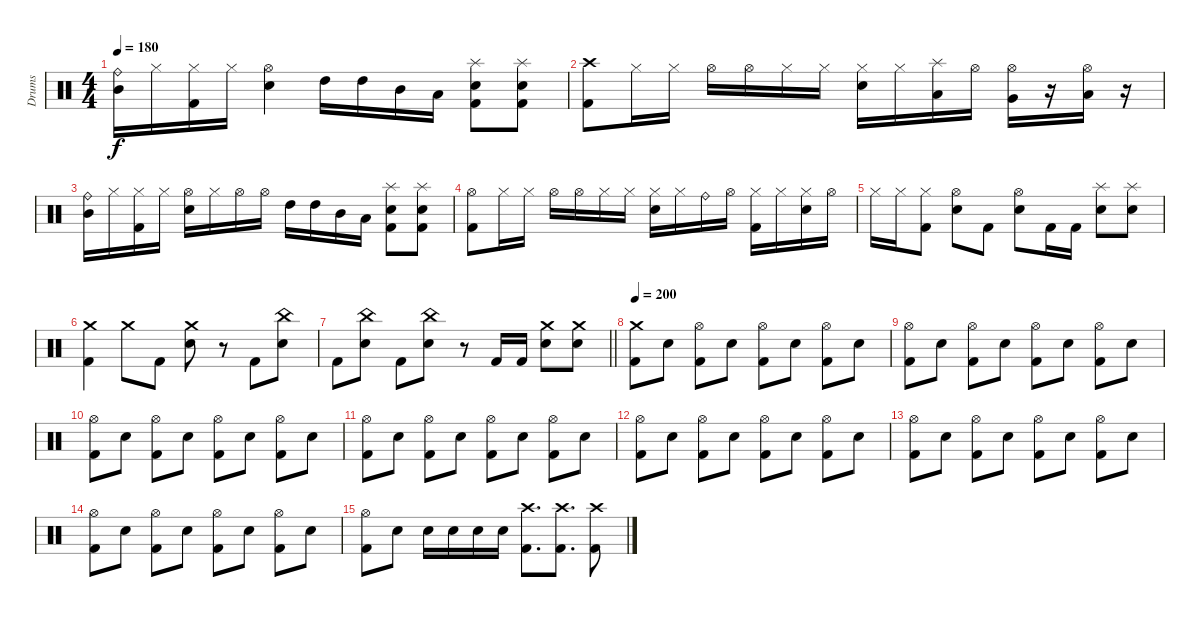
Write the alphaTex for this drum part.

\track ("Drums" "Drums") {instrument percussion}
\staff {score}
\articulation defaults
\ts (4 4)
\tempo 180
\clef neutral
\ks c
("Ride (bell)" "Mid Tom (hit)").16{dy f} "Hi-Hat (closed)".16 ("Hi-Hat (closed)" "Kick (hit) 2").16 "Hi-Hat (closed)".16 ("Hi-Hat (open)" "Electric Snare (hit)").4 "High Tom (hit)".16 "High Tom (hit)".16 "Mid Tom (hit)".16 "Low Tom (hit)".16 ("Splash (hit)" "Electric Snare (hit)" "Kick (hit) 2").8 ("Splash (hit)" "Electric Snare (hit)" "Kick (hit) 2").8 |
("Crash high (hit)" "Kick (hit) 2").8 "Hi-Hat (closed)".16 "Hi-Hat (closed)".16 "Hi-Hat (open)".16 "Hi-Hat (open)".16 "Hi-Hat (closed)".16 "Hi-Hat (closed)".16 ("Hi-Hat (closed)" "Electric Snare (hit)").16 "Hi-Hat (closed)".16 ("Splash (hit)" "Low Tom (hit)").16 "Hi-Hat (open)".16 ("Hi-Hat (open)" "Very Low Tom (hit)").16 r.16 ("Hi-Hat (open)" "Low Tom (hit)").16 r.16 |
("Ride (bell)" "Mid Tom (hit)").16 "Hi-Hat (closed)".16 ("Hi-Hat (closed)" "Kick (hit) 2").16 "Hi-Hat (closed)".16 ("Hi-Hat (open)" "Electric Snare (hit)").16 "Hi-Hat (closed)".16 "Hi-Hat (open)".16 "Hi-Hat (open)".16 "High Tom (hit)".16 "High Tom (hit)".16 "Mid Tom (hit)".16 "Low Tom (hit)".16 ("Splash (hit)" "Electric Snare (hit)" "Kick (hit) 2").8 ("Splash (hit)" "Electric Snare (hit)" "Kick (hit) 2").8 |
("Hi-Hat (open)" "Kick (hit) 2").8 "Hi-Hat (closed)".16 "Hi-Hat (closed)".16 "Hi-Hat (open)".16 "Hi-Hat (open)".16 "Hi-Hat (closed)".16 "Hi-Hat (closed)".16 ("Hi-Hat (closed)" "Electric Snare (hit)").16 "Hi-Hat (closed)".16 "Ride (bell)".16 "Hi-Hat (open)".16 ("Hi-Hat (closed)" "Kick (hit) 2").16 "Hi-Hat (closed)".16 ("Hi-Hat (closed)" "Electric Snare (hit)").16 "Hi-Hat (open)".16 |
"Hi-Hat (closed)".16 "Hi-Hat (closed)".16 ("Hi-Hat (closed)" "Kick (hit) 2").8 ("Hi-Hat (open)" "Electric Snare (hit)").8 "Kick (hit) 2".8 ("Hi-Hat (open)" "Electric Snare (hit)").8 "Kick (hit) 2".16 "Kick (hit) 2".16 ("Splash (hit)" "Electric Snare (hit)").8 ("Splash (hit)" "Electric Snare (hit)").8 |
("Crash medium (hit)" "Kick (hit) 2").4 "Crash medium (hit)".8 "Kick (hit) 2".8 ("Crash medium (hit)" "Electric Snare (hit)").8 r.8 "Kick (hit) 2".8 ("China (hit)" "Electric Snare (hit)").8 |
\barLineRight lightlight "Kick (hit) 2".8
("China (hit)" "Electric Snare (hit)").8 "Kick (hit) 2".8 ("China (hit)" "Electric Snare (hit)").8 r.8 "Kick (hit) 2".16 "Kick (hit) 2".16 ("Crash medium (hit)" "Electric Snare (hit)").8 ("Crash medium (hit)" "Electric Snare (hit)").8 |
\section ("" "")
\tempo 200
("Crash medium (hit)" "Kick (hit) 2").8 "Electric Snare (hit)".8 ("Hi-Hat (open)" "Kick (hit) 2").8 "Electric Snare (hit)".8 ("Hi-Hat (open)" "Kick (hit) 2").8 "Electric Snare (hit)".8 ("Hi-Hat (open)" "Kick (hit) 2").8 "Electric Snare (hit)".8 |
("Hi-Hat (open)" "Kick (hit) 2").8 "Electric Snare (hit)".8 ("Hi-Hat (open)" "Kick (hit) 2").8 "Electric Snare (hit)".8 ("Hi-Hat (open)" "Kick (hit) 2").8 "Electric Snare (hit)".8 ("Hi-Hat (open)" "Kick (hit) 2").8 "Electric Snare (hit)".8 |
("Hi-Hat (open)" "Kick (hit) 2").8 "Electric Snare (hit)".8 ("Hi-Hat (open)" "Kick (hit) 2").8 "Electric Snare (hit)".8 ("Hi-Hat (open)" "Kick (hit) 2").8 "Electric Snare (hit)".8 ("Hi-Hat (open)" "Kick (hit) 2").8 "Electric Snare (hit)".8 |
("Hi-Hat (open)" "Kick (hit) 2").8 "Electric Snare (hit)".8 ("Hi-Hat (open)" "Kick (hit) 2").8 "Electric Snare (hit)".8 ("Hi-Hat (open)" "Kick (hit) 2").8 "Electric Snare (hit)".8 ("Hi-Hat (open)" "Kick (hit) 2").8 "Electric Snare (hit)".8 |
("Hi-Hat (open)" "Kick (hit) 2").8 "Electric Snare (hit)".8 ("Hi-Hat (open)" "Kick (hit) 2").8 "Electric Snare (hit)".8 ("Hi-Hat (open)" "Kick (hit) 2").8 "Electric Snare (hit)".8 ("Hi-Hat (open)" "Kick (hit) 2").8 "Electric Snare (hit)".8 |
("Hi-Hat (open)" "Kick (hit) 2").8 "Electric Snare (hit)".8 ("Hi-Hat (open)" "Kick (hit) 2").8 "Electric Snare (hit)".8 ("Hi-Hat (open)" "Kick (hit) 2").8 "Electric Snare (hit)".8 ("Hi-Hat (open)" "Kick (hit) 2").8 "Electric Snare (hit)".8 |
("Hi-Hat (open)" "Kick (hit) 2").8 "Electric Snare (hit)".8 ("Hi-Hat (open)" "Kick (hit) 2").8 "Electric Snare (hit)".8 ("Hi-Hat (open)" "Kick (hit) 2").8 "Electric Snare (hit)".8 ("Hi-Hat (open)" "Kick (hit) 2").8 "Electric Snare (hit)".8 |
("Hi-Hat (open)" "Kick (hit) 2").8 "Electric Snare (hit)".8 "Electric Snare (hit)".16 "Electric Snare (hit)".16 "Electric Snare (hit)".16 "Electric Snare (hit)".16 ("Crash high (hit)" "Kick (hit) 2").8{d} ("Crash high (hit)" "Kick (hit) 2").8{d} ("Crash high (hit)" "Kick (hit) 2").8
